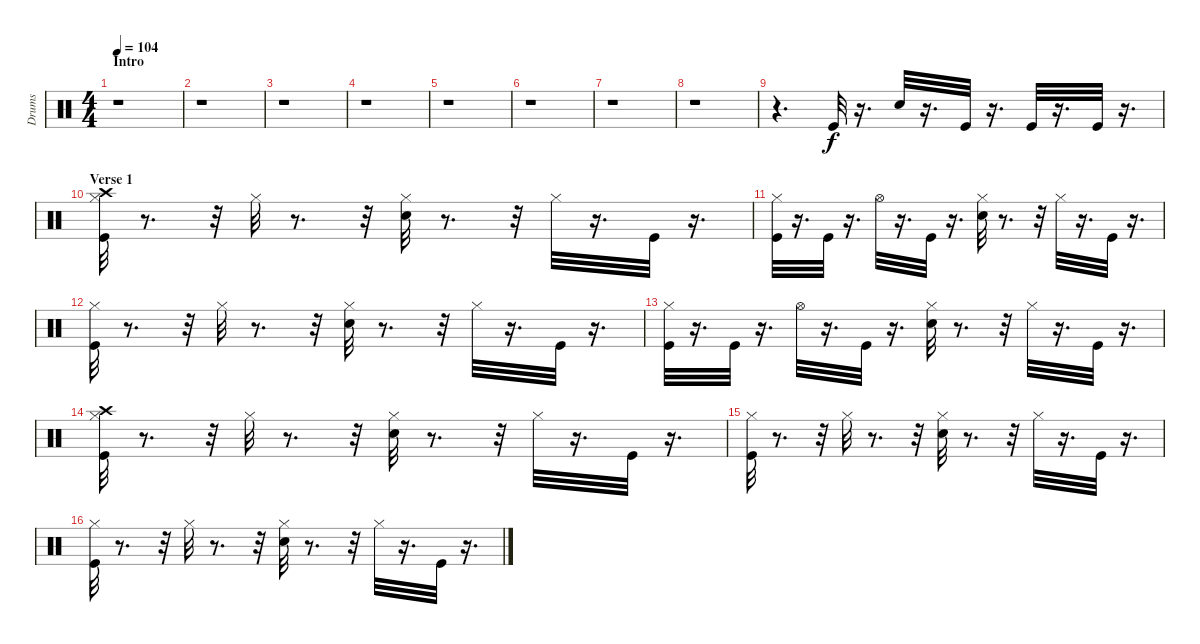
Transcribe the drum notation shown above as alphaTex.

\track ("Drums" "Drums") {instrument percussion}
\staff {score}
\articulation defaults
\ts (4 4)
\section ("" "Intro")
\tempo 104
\clef neutral
\ks c
r.1{dy f} |
r.1 |
r.1 |
r.1 |
r.1 |
r.1 |
r.1 |
r.1 |
r.4{d} "Kick (hit)".32 r.16{d} "Electric Snare (hit)".32 r.16{d} "Kick (hit)".32 r.16{d} "Kick (hit)".32 r.16{d} "Kick (hit)".32 r.16{d} |
\section ("" "Verse 1")
("Hi-Hat (closed)" "Crash high (hit)" "Kick (hit)").32 r.8{d} r.32 "Hi-Hat (closed)".32 r.8{d} r.32 ("Electric Snare (hit)" "Hi-Hat (closed)").32 r.8{d} r.32 "Hi-Hat (closed)".32 r.16{d} "Kick (hit)".32 r.16{d} |
("Hi-Hat (closed)" "Kick (hit)").32 r.16{d} "Kick (hit)".32 r.16{d} "Hi-Hat (open)".32 r.16{d} "Kick (hit)".32 r.16{d} ("Hi-Hat (closed)" "Electric Snare (hit)").32 r.8{d} r.32 "Hi-Hat (closed)".32 r.16{d} "Kick (hit)".32 r.16{d} |
("Hi-Hat (closed)" "Kick (hit)").32 r.8{d} r.32 "Hi-Hat (closed)".32 r.8{d} r.32 ("Electric Snare (hit)" "Hi-Hat (closed)").32 r.8{d} r.32 "Hi-Hat (closed)".32 r.16{d} "Kick (hit)".32 r.16{d} |
("Hi-Hat (closed)" "Kick (hit)").32 r.16{d} "Kick (hit)".32 r.16{d} "Hi-Hat (open)".32 r.16{d} "Kick (hit)".32 r.16{d} ("Hi-Hat (closed)" "Electric Snare (hit)").32 r.8{d} r.32 "Hi-Hat (closed)".32 r.16{d} "Kick (hit)".32 r.16{d} |
("Hi-Hat (closed)" "Crash high (hit)" "Kick (hit)").32 r.8{d} r.32 "Hi-Hat (closed)".32 r.8{d} r.32 ("Electric Snare (hit)" "Hi-Hat (closed)").32 r.8{d} r.32 "Hi-Hat (closed)".32 r.16{d} "Kick (hit)".32 r.16{d} |
("Hi-Hat (closed)" "Kick (hit)").32 r.8{d} r.32 "Hi-Hat (closed)".32 r.8{d} r.32 ("Electric Snare (hit)" "Hi-Hat (closed)").32 r.8{d} r.32 "Hi-Hat (closed)".32 r.16{d} "Kick (hit)".32 r.16{d} |
("Hi-Hat (closed)" "Kick (hit)").32 r.8{d} r.32 "Hi-Hat (closed)".32 r.8{d} r.32 ("Electric Snare (hit)" "Hi-Hat (closed)").32 r.8{d} r.32 "Hi-Hat (closed)".32 r.16{d} "Kick (hit)".32 r.16{d}
